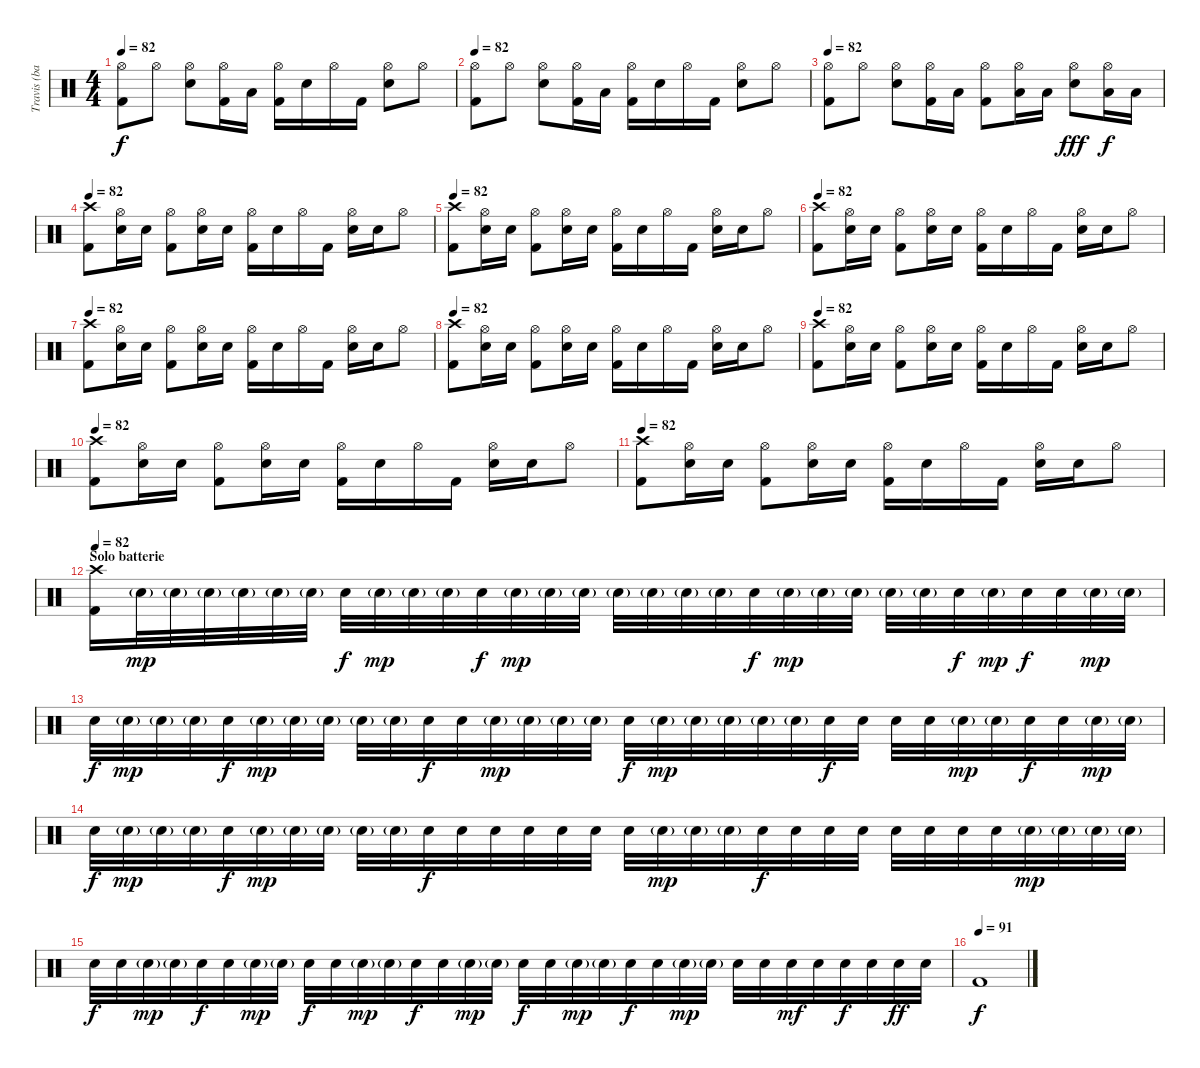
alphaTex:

\track ("Travis (batterie)" "Travis (ba") {instrument percussion}
\staff {score}
\articulation defaults
\ts (4 4)
\tempo 82
\clef neutral
\ks c
("Hi-Hat (open)" "Kick (hit) 2").8{dy f} "Hi-Hat (open)".8 ("Hi-Hat (open)" "Electric Snare (hit)").8 ("Hi-Hat (open)" "Kick (hit) 2").16 "Low Tom (hit)".16 ("Hi-Hat (open)" "Kick (hit) 2").16 "Electric Snare (hit)".16 "Hi-Hat (open)".16 "Kick (hit) 2".16 ("Hi-Hat (open)" "Electric Snare (hit)").8 "Hi-Hat (open)".8 |
\tempo 82
("Hi-Hat (open)" "Kick (hit) 2").8 "Hi-Hat (open)".8 ("Hi-Hat (open)" "Electric Snare (hit)").8 ("Hi-Hat (open)" "Kick (hit) 2").16 "Low Tom (hit)".16 ("Hi-Hat (open)" "Kick (hit) 2").16 "Electric Snare (hit)".16 "Hi-Hat (open)".16 "Kick (hit) 2".16 ("Hi-Hat (open)" "Electric Snare (hit)").8 "Hi-Hat (open)".8 |
\tempo 82
("Hi-Hat (open)" "Kick (hit) 2").8 "Hi-Hat (open)".8 ("Hi-Hat (open)" "Electric Snare (hit)").8 ("Hi-Hat (open)" "Kick (hit) 2").16 "Low Tom (hit)".16 ("Hi-Hat (open)" "Kick (hit) 2").8 ("Hi-Hat (open)" "Low Tom (hit)").16 "Low Tom (hit)".16 ("Hi-Hat (open)" "Electric Snare (hit)").8{dy fff} ("Hi-Hat (open)" "Low Tom (hit)").16{dy f} "Low Tom (hit)".16 |
\tempo 82
("Crash high (hit)" "Kick (hit) 2").8 ("Hi-Hat (open)" "Electric Snare (hit)").16 "Electric Snare (hit)".16 ("Hi-Hat (open)" "Kick (hit) 2").8 ("Hi-Hat (open)" "Electric Snare (hit)").16 "Electric Snare (hit)".16 ("Hi-Hat (open)" "Kick (hit) 2").16 "Electric Snare (hit)".16 "Hi-Hat (open)".16 "Kick (hit) 2".16 ("Hi-Hat (open)" "Electric Snare (hit)").16 "Electric Snare (hit)".16 "Hi-Hat (open)".8 |
\tempo 82
("Crash high (hit)" "Kick (hit) 2").8 ("Hi-Hat (open)" "Electric Snare (hit)").16 "Electric Snare (hit)".16 ("Hi-Hat (open)" "Kick (hit) 2").8 ("Hi-Hat (open)" "Electric Snare (hit)").16 "Electric Snare (hit)".16 ("Hi-Hat (open)" "Kick (hit) 2").16 "Electric Snare (hit)".16 "Hi-Hat (open)".16 "Kick (hit) 2".16 ("Hi-Hat (open)" "Electric Snare (hit)").16 "Electric Snare (hit)".16 "Hi-Hat (open)".8 |
\tempo 82
("Crash high (hit)" "Kick (hit) 2").8 ("Hi-Hat (open)" "Electric Snare (hit)").16 "Electric Snare (hit)".16 ("Hi-Hat (open)" "Kick (hit) 2").8 ("Hi-Hat (open)" "Electric Snare (hit)").16 "Electric Snare (hit)".16 ("Hi-Hat (open)" "Kick (hit) 2").16 "Electric Snare (hit)".16 "Hi-Hat (open)".16 "Kick (hit) 2".16 ("Hi-Hat (open)" "Electric Snare (hit)").16 "Electric Snare (hit)".16 "Hi-Hat (open)".8 |
\tempo 82
("Crash high (hit)" "Kick (hit) 2").8 ("Hi-Hat (open)" "Electric Snare (hit)").16 "Electric Snare (hit)".16 ("Hi-Hat (open)" "Kick (hit) 2").8 ("Hi-Hat (open)" "Electric Snare (hit)").16 "Electric Snare (hit)".16 ("Hi-Hat (open)" "Kick (hit) 2").16 "Electric Snare (hit)".16 "Hi-Hat (open)".16 "Kick (hit) 2".16 ("Hi-Hat (open)" "Electric Snare (hit)").16 "Electric Snare (hit)".16 "Hi-Hat (open)".8 |
\tempo 82
("Crash high (hit)" "Kick (hit) 2").8 ("Hi-Hat (open)" "Electric Snare (hit)").16 "Electric Snare (hit)".16 ("Hi-Hat (open)" "Kick (hit) 2").8 ("Hi-Hat (open)" "Electric Snare (hit)").16 "Electric Snare (hit)".16 ("Hi-Hat (open)" "Kick (hit) 2").16 "Electric Snare (hit)".16 "Hi-Hat (open)".16 "Kick (hit) 2".16 ("Hi-Hat (open)" "Electric Snare (hit)").16 "Electric Snare (hit)".16 "Hi-Hat (open)".8 |
\tempo 82
("Crash high (hit)" "Kick (hit) 2").8 ("Hi-Hat (open)" "Electric Snare (hit)").16 "Electric Snare (hit)".16 ("Hi-Hat (open)" "Kick (hit) 2").8 ("Hi-Hat (open)" "Electric Snare (hit)").16 "Electric Snare (hit)".16 ("Hi-Hat (open)" "Kick (hit) 2").16 "Electric Snare (hit)".16 "Hi-Hat (open)".16 "Kick (hit) 2".16 ("Hi-Hat (open)" "Electric Snare (hit)").16 "Electric Snare (hit)".16 "Hi-Hat (open)".8 |
\tempo 82
("Crash high (hit)" "Kick (hit) 2").8 ("Hi-Hat (open)" "Electric Snare (hit)").16 "Electric Snare (hit)".16 ("Hi-Hat (open)" "Kick (hit) 2").8 ("Hi-Hat (open)" "Electric Snare (hit)").16 "Electric Snare (hit)".16 ("Hi-Hat (open)" "Kick (hit) 2").16 "Electric Snare (hit)".16 "Hi-Hat (open)".16 "Kick (hit) 2".16 ("Hi-Hat (open)" "Electric Snare (hit)").16 "Electric Snare (hit)".16 "Hi-Hat (open)".8 |
\tempo 82
("Crash high (hit)" "Kick (hit) 2").8 ("Hi-Hat (open)" "Electric Snare (hit)").16 "Electric Snare (hit)".16 ("Hi-Hat (open)" "Kick (hit) 2").8 ("Hi-Hat (open)" "Electric Snare (hit)").16 "Electric Snare (hit)".16 ("Hi-Hat (open)" "Kick (hit) 2").16 "Electric Snare (hit)".16 "Hi-Hat (open)".16 "Kick (hit) 2".16 ("Hi-Hat (open)" "Electric Snare (hit)").16 "Electric Snare (hit)".16 "Hi-Hat (open)".8 |
\section ("" "Solo batterie")
\tempo 82
("Crash high (hit)" "Kick (hit) 2").16{volume 12} "Electric Snare (hit)"{g}.32{dy mp volume 12} "Electric Snare (hit)"{g}.32 "Electric Snare (hit)"{g}.32 "Electric Snare (hit)"{g}.32 "Electric Snare (hit)"{g}.32 "Electric Snare (hit)"{g}.32 "Electric Snare (hit)".32{dy f balance 0} "Electric Snare (hit)"{g}.32{dy mp balance 9} "Electric Snare (hit)"{g}.32 "Electric Snare (hit)"{g}.32 "Electric Snare (hit)".32{dy f balance 16} "Electric Snare (hit)"{g}.32{dy mp balance 9} "Electric Snare (hit)"{g}.32 "Electric Snare (hit)"{g}.32 "Electric Snare (hit)"{g}.32 "Electric Snare (hit)"{g}.32 "Electric Snare (hit)"{g}.32 "Electric Snare (hit)"{g}.32 "Electric Snare (hit)".32{dy f balance 0} "Electric Snare (hit)"{g}.32{dy mp balance 9} "Electric Snare (hit)"{g}.32 "Electric Snare (hit)"{g}.32 "Electric Snare (hit)"{g}.32 "Electric Snare (hit)"{g}.32 "Electric Snare (hit)".32{dy f balance 16} "Electric Snare (hit)"{g}.32{dy mp balance 9} "Electric Snare (hit)".32{dy f balance 0} "Electric Snare (hit)".32 "Electric Snare (hit)"{g}.32{dy mp balance 9} "Electric Snare (hit)"{g}.32 |
"Electric Snare (hit)".32{dy f balance 16} "Electric Snare (hit)"{g}.32{dy mp balance 9} "Electric Snare (hit)"{g}.32 "Electric Snare (hit)"{g}.32 "Electric Snare (hit)".32{dy f balance 0} "Electric Snare (hit)"{g}.32{dy mp balance 9} "Electric Snare (hit)"{g}.32 "Electric Snare (hit)"{g}.32 "Electric Snare (hit)"{g}.32 "Electric Snare (hit)"{g}.32 "Electric Snare (hit)".32{dy f balance 16} "Electric Snare (hit)".32 "Electric Snare (hit)"{g}.32{dy mp balance 9} "Electric Snare (hit)"{g}.32 "Electric Snare (hit)"{g}.32 "Electric Snare (hit)"{g}.32 "Electric Snare (hit)".32{dy f balance 0} "Electric Snare (hit)"{g}.32{dy mp balance 9} "Electric Snare (hit)"{g}.32 "Electric Snare (hit)"{g}.32 "Electric Snare (hit)"{g}.32 "Electric Snare (hit)"{g}.32 "Electric Snare (hit)".32{dy f balance 16} "Electric Snare (hit)".32 "Electric Snare (hit)".32 "Electric Snare (hit)".32 "Electric Snare (hit)"{g}.32{dy mp balance 9} "Electric Snare (hit)"{g}.32 "Electric Snare (hit)".32{dy f balance 0} "Electric Snare (hit)".32 "Electric Snare (hit)"{g}.32{dy mp balance 9} "Electric Snare (hit)"{g}.32 |
"Electric Snare (hit)".32{dy f balance 16} "Electric Snare (hit)"{g}.32{dy mp balance 9} "Electric Snare (hit)"{g}.32 "Electric Snare (hit)"{g}.32 "Electric Snare (hit)".32{dy f balance 0} "Electric Snare (hit)"{g}.32{dy mp balance 9} "Electric Snare (hit)"{g}.32 "Electric Snare (hit)"{g}.32 "Electric Snare (hit)"{g}.32 "Electric Snare (hit)"{g}.32 "Electric Snare (hit)".32{dy f balance 16} "Electric Snare (hit)".32 "Electric Snare (hit)".32 "Electric Snare (hit)".32 "Electric Snare (hit)".32 "Electric Snare (hit)".32{balance 0} "Electric Snare (hit)".32 "Electric Snare (hit)"{g}.32{dy mp} "Electric Snare (hit)"{g}.32 "Electric Snare (hit)"{g}.32 "Electric Snare (hit)".32{dy f balance 16} "Electric Snare (hit)".32 "Electric Snare (hit)".32 "Electric Snare (hit)".32 "Electric Snare (hit)".32 "Electric Snare (hit)".32 "Electric Snare (hit)".32{balance 0} "Electric Snare (hit)".32 "Electric Snare (hit)"{g}.32{dy mp balance 9} "Electric Snare (hit)"{g}.32 "Electric Snare (hit)"{g}.32 "Electric Snare (hit)"{g}.32 |
"Electric Snare (hit)".32{dy f balance 16} "Electric Snare (hit)".32 "Electric Snare (hit)"{g}.32{dy mp balance 9} "Electric Snare (hit)"{g}.32 "Electric Snare (hit)".32{dy f balance 0} "Electric Snare (hit)".32 "Electric Snare (hit)"{g}.32{dy mp balance 9} "Electric Snare (hit)"{g}.32 "Electric Snare (hit)".32{dy f balance 16} "Electric Snare (hit)".32 "Electric Snare (hit)"{g}.32{dy mp balance 9} "Electric Snare (hit)"{g}.32 "Electric Snare (hit)".32{dy f balance 0} "Electric Snare (hit)".32 "Electric Snare (hit)"{g}.32{dy mp balance 9} "Electric Snare (hit)"{g}.32 "Electric Snare (hit)".32{dy f balance 16} "Electric Snare (hit)".32 "Electric Snare (hit)"{g}.32{dy mp balance 9} "Electric Snare (hit)"{g}.32 "Electric Snare (hit)".32{dy f balance 0} "Electric Snare (hit)".32 "Electric Snare (hit)"{g}.32{dy mp balance 9} "Electric Snare (hit)"{g}.32 "Electric Snare (hit)".32 "Electric Snare (hit)".32 "Electric Snare (hit)".32{dy mf} "Electric Snare (hit)".32 "Electric Snare (hit)".32{dy f} "Electric Snare (hit)".32 "Electric Snare (hit)".32{dy ff} "Electric Snare (hit)".32 |
\tempo (91)
"Kick (hit) 2".1{dy f}
